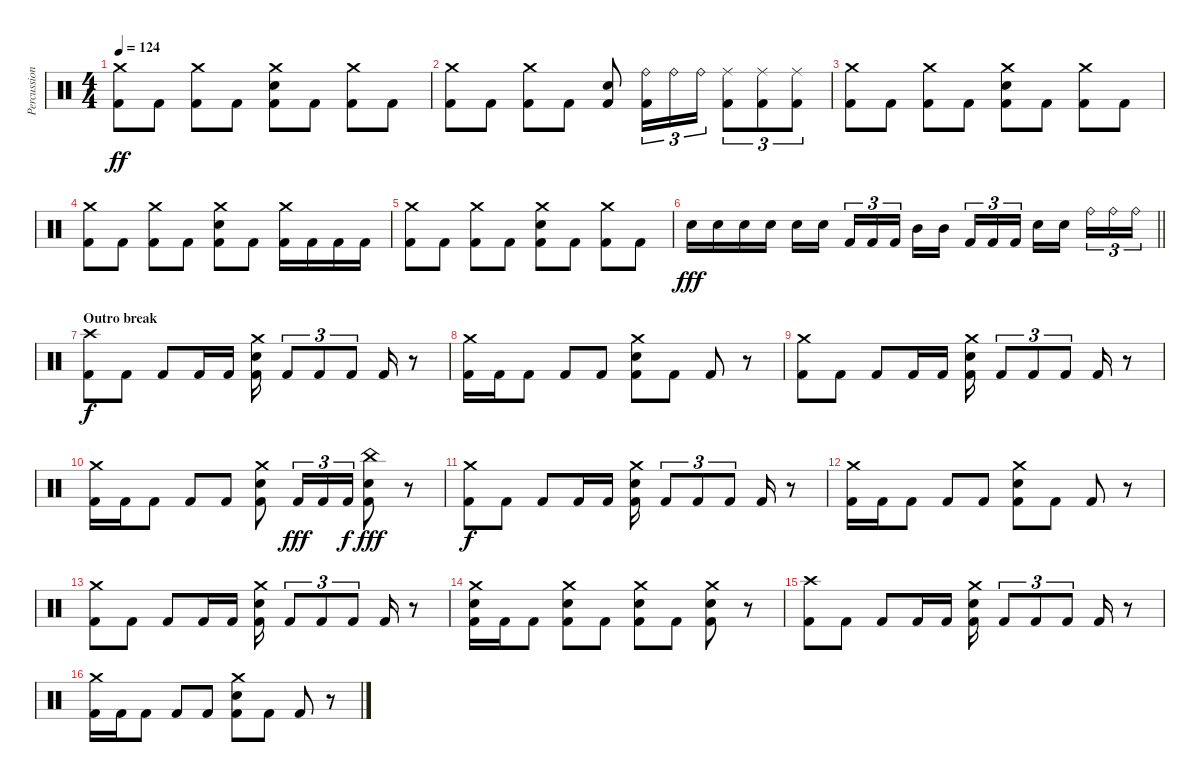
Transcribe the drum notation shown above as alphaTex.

\track ("Percussion" "Percussion") {instrument percussion}
\staff {score}
\articulation defaults
\ts (4 4)
\tempo 124
\clef neutral
\ks c
("Crash medium (hit)" "Kick (hit) 2").8{dy ff} "Kick (hit) 2".8 ("Crash medium (hit)" "Kick (hit) 2").8 "Kick (hit) 2".8 ("Crash medium (hit)" "Electric Snare (hit)" "Kick (hit) 2").8 "Kick (hit) 2".8 ("Crash medium (hit)" "Kick (hit) 2").8 "Kick (hit) 2".8 |
("Crash medium (hit)" "Kick (hit) 2").8 "Kick (hit) 2".8 ("Crash medium (hit)" "Kick (hit) 2").8 "Kick (hit) 2".8 ("Electric Snare (hit)" "Kick (hit) 2").8 ("Ride (bell)" "Kick (hit) 2").16{tu (3 2)} "Ride (bell)".16{tu (3 2)} "Ride (bell)".16{tu (3 2)} ("Ride (middle)" "Kick (hit) 2").8{tu (3 2)} ("Ride (middle)" "Kick (hit) 2").8{tu (3 2)} ("Ride (middle)" "Kick (hit) 2").8{tu (3 2)} |
("Crash medium (hit)" "Kick (hit) 2").8 "Kick (hit) 2".8 ("Crash medium (hit)" "Kick (hit) 2").8 "Kick (hit) 2".8 ("Crash medium (hit)" "Electric Snare (hit)" "Kick (hit) 2").8 "Kick (hit) 2".8 ("Crash medium (hit)" "Kick (hit) 2").8 "Kick (hit) 2".8 |
("Crash medium (hit)" "Kick (hit) 2").8 "Kick (hit) 2".8 ("Crash medium (hit)" "Kick (hit) 2").8 "Kick (hit) 2".8 ("Crash medium (hit)" "Electric Snare (hit)" "Kick (hit) 2").8 "Kick (hit) 2".8 ("Crash medium (hit)" "Kick (hit) 2").16 "Kick (hit) 2".16 "Kick (hit) 2".16 "Kick (hit) 2".16 |
("Crash medium (hit)" "Kick (hit) 2").8 "Kick (hit) 2".8 ("Crash medium (hit)" "Kick (hit) 2").8 "Kick (hit) 2".8 ("Crash medium (hit)" "Electric Snare (hit)" "Kick (hit) 2").8 "Kick (hit) 2".8 ("Crash medium (hit)" "Kick (hit) 2").8 "Kick (hit) 2".8 |
\barLineRight lightlight "Electric Snare (hit)".16{dy fff} "Electric Snare (hit)".16 "Electric Snare (hit)".16 "Electric Snare (hit)".16 "Electric Snare (hit)".16 "Electric Snare (hit)".16{beam splitsecondary} "Kick (hit) 2".16{tu (3 2)} "Kick (hit) 2".16{tu (3 2)} "Kick (hit) 2".16{tu (3 2)} "Mid Tom (hit)".16 "Mid Tom (hit)".16{beam splitsecondary} "Kick (hit) 2".16{tu (3 2)} "Kick (hit) 2".16{tu (3 2)} "Kick (hit) 2".16{tu (3 2)} "Electric Snare (hit)".16 "Electric Snare (hit)".16{beam splitsecondary} "Ride (bell)".16{tu (3 2)} "Ride (bell)".16{tu (3 2)} "Ride (bell)".16{tu (3 2)}
|
\section ("" "Outro break")
("Crash high (hit)" "Kick (hit) 2").8{dy f} "Kick (hit) 2".8 "Kick (hit) 2".8 "Kick (hit) 2".16 "Kick (hit) 2".16 ("Crash medium (hit)" "Electric Snare (hit)" "Kick (hit) 2").16 "Kick (hit) 2".8{tu (3 2)} "Kick (hit) 2".8{tu (3 2)} "Kick (hit) 2".8{tu (3 2)} "Kick (hit) 2".16 r.8 |
("Crash medium (hit)" "Kick (hit) 2").16 "Kick (hit) 2".16 "Kick (hit) 2".8 "Kick (hit) 2".8 "Kick (hit) 2".8 ("Crash medium (hit)" "Electric Snare (hit)" "Kick (hit) 2").8 "Kick (hit) 2".8 "Kick (hit) 2".8 r.8 |
("Crash medium (hit)" "Kick (hit) 2").8 "Kick (hit) 2".8 "Kick (hit) 2".8 "Kick (hit) 2".16 "Kick (hit) 2".16 ("Crash medium (hit)" "Electric Snare (hit)" "Kick (hit) 2").16 "Kick (hit) 2".8{tu (3 2)} "Kick (hit) 2".8{tu (3 2)} "Kick (hit) 2".8{tu (3 2)} "Kick (hit) 2".16 r.8 |
("Crash medium (hit)" "Kick (hit) 2").16 "Kick (hit) 2".16 "Kick (hit) 2".8 "Kick (hit) 2".8 "Kick (hit) 2".8 ("Crash medium (hit)" "Electric Snare (hit)" "Kick (hit) 2").8 "Kick (hit) 2".16{tu (3 2) dy fff} "Kick (hit) 2".16{tu (3 2)} "Kick (hit) 2".16{tu (3 2) dy f} ("China (hit)" "Electric Snare (hit)" "Kick (hit) 2").8{dy fff} r.8 |
("Crash medium (hit)" "Kick (hit) 2").8{dy f} "Kick (hit) 2".8 "Kick (hit) 2".8 "Kick (hit) 2".16 "Kick (hit) 2".16 ("Crash medium (hit)" "Electric Snare (hit)" "Kick (hit) 2").16 "Kick (hit) 2".8{tu (3 2)} "Kick (hit) 2".8{tu (3 2)} "Kick (hit) 2".8{tu (3 2)} "Kick (hit) 2".16 r.8 |
("Crash medium (hit)" "Kick (hit) 2").16 "Kick (hit) 2".16 "Kick (hit) 2".8 "Kick (hit) 2".8 "Kick (hit) 2".8 ("Crash medium (hit)" "Electric Snare (hit)" "Kick (hit) 2").8 "Kick (hit) 2".8 "Kick (hit) 2".8 r.8 |
("Crash medium (hit)" "Kick (hit) 2").8 "Kick (hit) 2".8 "Kick (hit) 2".8 "Kick (hit) 2".16 "Kick (hit) 2".16 ("Crash medium (hit)" "Electric Snare (hit)" "Kick (hit) 2").16 "Kick (hit) 2".8{tu (3 2)} "Kick (hit) 2".8{tu (3 2)} "Kick (hit) 2".8{tu (3 2)} "Kick (hit) 2".16 r.8 |
("Crash medium (hit)" "Electric Snare (hit)" "Kick (hit) 2").16 "Kick (hit) 2".16 "Kick (hit) 2".8 ("Crash medium (hit)" "Electric Snare (hit)" "Kick (hit) 2").8 "Kick (hit) 2".8 ("Crash medium (hit)" "Electric Snare (hit)" "Kick (hit) 2").8 "Kick (hit) 2".8 ("Crash medium (hit)" "Electric Snare (hit)" "Kick (hit) 2").8 r.8 |
("Crash high (hit)" "Kick (hit) 2").8 "Kick (hit) 2".8 "Kick (hit) 2".8 "Kick (hit) 2".16 "Kick (hit) 2".16 ("Crash medium (hit)" "Electric Snare (hit)" "Kick (hit) 2").16 "Kick (hit) 2".8{tu (3 2)} "Kick (hit) 2".8{tu (3 2)} "Kick (hit) 2".8{tu (3 2)} "Kick (hit) 2".16 r.8 |
("Crash medium (hit)" "Kick (hit) 2").16 "Kick (hit) 2".16 "Kick (hit) 2".8 "Kick (hit) 2".8 "Kick (hit) 2".8 ("Crash medium (hit)" "Electric Snare (hit)" "Kick (hit) 2").8 "Kick (hit) 2".8 "Kick (hit) 2".8 r.8
